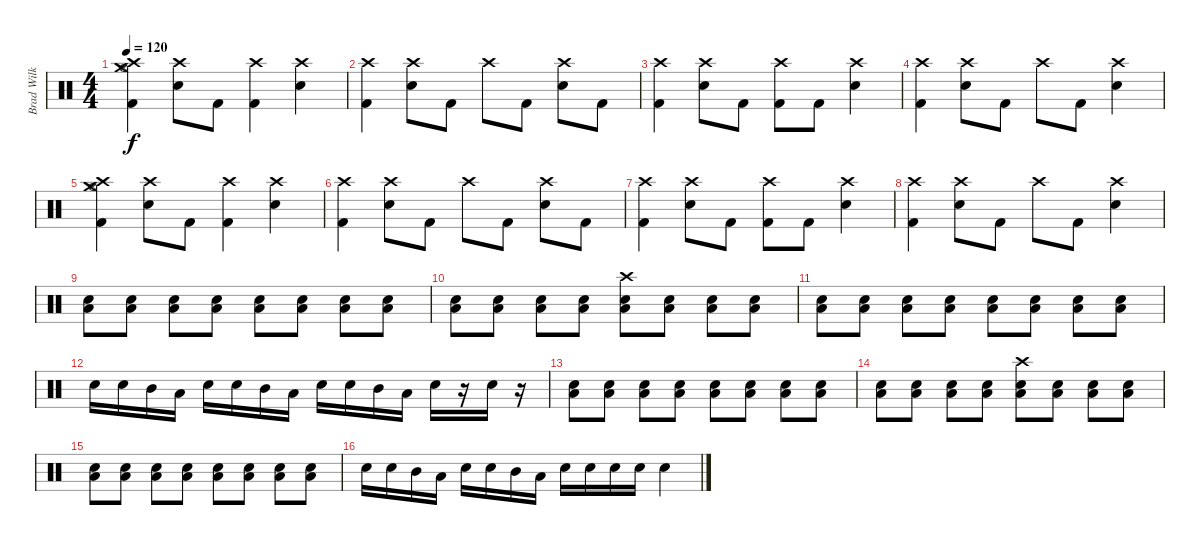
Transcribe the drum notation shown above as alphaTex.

\track ("Brad Wilk" "Brad Wilk") {instrument percussion}
\staff {score}
\articulation defaults
\ts (4 4)
\tempo 120
\clef neutral
\ks c
("Crash high (hit)" "Kick (hit) 2" "Crash medium (hit)" "Hi-Hat (open)").4{dy f} ("Crash high (hit)" "Snare (hit) 2").8 "Kick (hit) 2".8 ("Crash high (hit)" "Kick (hit) 2").4 ("Crash high (hit)" "Snare (hit) 2").4 |
("Crash high (hit)" "Kick (hit) 2").4 ("Crash high (hit)" "Snare (hit) 2").8 "Kick (hit) 2".8 "Crash high (hit)".8 "Kick (hit) 2".8 ("Crash high (hit)" "Snare (hit) 2").8 "Kick (hit) 2".8 |
("Crash high (hit)" "Kick (hit) 2").4 ("Crash high (hit)" "Snare (hit) 2").8 "Kick (hit) 2".8 ("Crash high (hit)" "Kick (hit) 2").8 "Kick (hit) 2".8 ("Crash high (hit)" "Snare (hit) 2").4 |
("Crash high (hit)" "Kick (hit) 2").4 ("Crash high (hit)" "Snare (hit) 2").8 "Kick (hit) 2".8 "Crash high (hit)".8 "Kick (hit) 2".8 ("Crash high (hit)" "Snare (hit) 2").4 |
("Crash high (hit)" "Kick (hit) 2" "Crash medium (hit)" "Hi-Hat (open)").4 ("Crash high (hit)" "Snare (hit) 2").8 "Kick (hit) 2".8 ("Crash high (hit)" "Kick (hit) 2").4 ("Crash high (hit)" "Snare (hit) 2").4 |
("Crash high (hit)" "Kick (hit) 2").4 ("Crash high (hit)" "Snare (hit) 2").8 "Kick (hit) 2".8 "Crash high (hit)".8 "Kick (hit) 2".8 ("Crash high (hit)" "Snare (hit) 2").8 "Kick (hit) 2".8 |
("Crash high (hit)" "Kick (hit) 2").4 ("Crash high (hit)" "Snare (hit) 2").8 "Kick (hit) 2".8 ("Crash high (hit)" "Kick (hit) 2").8 "Kick (hit) 2".8 ("Crash high (hit)" "Snare (hit) 2").4 |
("Crash high (hit)" "Kick (hit) 2").4 ("Crash high (hit)" "Snare (hit) 2").8 "Kick (hit) 2".8 "Crash high (hit)".8 "Kick (hit) 2".8 ("Crash high (hit)" "Snare (hit) 2").4 |
("Low Floor Tom (hit)" "Snare (hit) 2").8 ("Low Floor Tom (hit)" "Snare (hit) 2").8 ("Low Floor Tom (hit)" "Snare (hit) 2").8 ("Low Floor Tom (hit)" "Snare (hit) 2").8 ("Low Floor Tom (hit)" "Snare (hit) 2").8 ("Low Floor Tom (hit)" "Snare (hit) 2").8 ("Low Floor Tom (hit)" "Snare (hit) 2").8 ("Low Floor Tom (hit)" "Snare (hit) 2").8 |
("Low Floor Tom (hit)" "Snare (hit) 2").8 ("Low Floor Tom (hit)" "Snare (hit) 2").8 ("Low Floor Tom (hit)" "Snare (hit) 2").8 ("Low Floor Tom (hit)" "Snare (hit) 2").8 ("Low Floor Tom (hit)" "Snare (hit) 2" "Crash high (hit)").8 ("Low Floor Tom (hit)" "Snare (hit) 2").8 ("Low Floor Tom (hit)" "Snare (hit) 2").8 ("Low Floor Tom (hit)" "Snare (hit) 2").8 |
("Low Floor Tom (hit)" "Snare (hit) 2").8 ("Low Floor Tom (hit)" "Snare (hit) 2").8 ("Low Floor Tom (hit)" "Snare (hit) 2").8 ("Low Floor Tom (hit)" "Snare (hit) 2").8 ("Low Floor Tom (hit)" "Snare (hit) 2").8 ("Low Floor Tom (hit)" "Snare (hit) 2").8 ("Low Floor Tom (hit)" "Snare (hit) 2").8 ("Low Floor Tom (hit)" "Snare (hit) 2").8 |
"Snare (hit) 2".16 "Snare (hit) 2".16 "Mid Tom (hit)".16 "Low Tom (hit)".16 "Snare (hit) 2".16 "Snare (hit) 2".16 "Mid Tom (hit)".16 "Low Tom (hit)".16 "Snare (hit) 2".16 "Snare (hit) 2".16 "Mid Tom (hit)".16 "Low Tom (hit)".16 "Snare (hit) 2".16 r.16 "Snare (hit) 2".16 r.16 |
("Low Floor Tom (hit)" "Snare (hit) 2").8 ("Low Floor Tom (hit)" "Snare (hit) 2").8 ("Low Floor Tom (hit)" "Snare (hit) 2").8 ("Low Floor Tom (hit)" "Snare (hit) 2").8 ("Low Floor Tom (hit)" "Snare (hit) 2").8 ("Low Floor Tom (hit)" "Snare (hit) 2").8 ("Low Floor Tom (hit)" "Snare (hit) 2").8 ("Low Floor Tom (hit)" "Snare (hit) 2").8 |
("Low Floor Tom (hit)" "Snare (hit) 2").8 ("Low Floor Tom (hit)" "Snare (hit) 2").8 ("Low Floor Tom (hit)" "Snare (hit) 2").8 ("Low Floor Tom (hit)" "Snare (hit) 2").8 ("Low Floor Tom (hit)" "Snare (hit) 2" "Crash high (hit)").8 ("Low Floor Tom (hit)" "Snare (hit) 2").8 ("Low Floor Tom (hit)" "Snare (hit) 2").8 ("Low Floor Tom (hit)" "Snare (hit) 2").8 |
("Low Floor Tom (hit)" "Snare (hit) 2").8 ("Low Floor Tom (hit)" "Snare (hit) 2").8 ("Low Floor Tom (hit)" "Snare (hit) 2").8 ("Low Floor Tom (hit)" "Snare (hit) 2").8 ("Low Floor Tom (hit)" "Snare (hit) 2").8 ("Low Floor Tom (hit)" "Snare (hit) 2").8 ("Low Floor Tom (hit)" "Snare (hit) 2").8 ("Low Floor Tom (hit)" "Snare (hit) 2").8 |
"Snare (hit) 2".16 "Snare (hit) 2".16 "Mid Tom (hit)".16 "Low Tom (hit)".16 "Snare (hit) 2".16 "Snare (hit) 2".16 "Mid Tom (hit)".16 "Low Tom (hit)".16 "Snare (hit) 2".16 "Snare (hit) 2".16 "Snare (hit) 2".16 "Snare (hit) 2".16 "Snare (hit) 2".4
